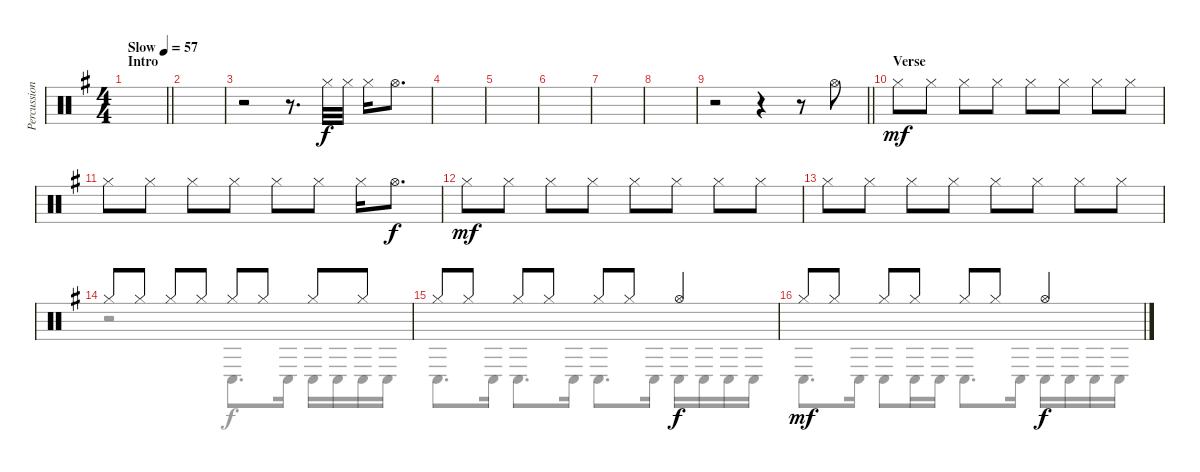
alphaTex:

\track ("Percussion 1" "Percussion") {instrument percussion}
\staff {score}
\articulation defaults
\voice
\ts (4 4)
\section ("" "Intro")
\tempo (57 "Slow")
\clef neutral
\barLineRight lightlight
\ks g
|
|
r.2 r.8{d} "Hi-Hat (closed)".32 "Hi-Hat (closed)".32 "Hi-Hat (closed)".16 "Hi-Hat (open)".8{d} |
|
|
|
|
|
\barLineRight lightlight
r.2 r.4 r.8 "Hi-Hat (open)".8{dy f} |
\section ("" "Verse")
"Hi-Hat (closed)".8{dy mf} "Hi-Hat (closed)".8 "Hi-Hat (closed)".8 "Hi-Hat (closed)".8 "Hi-Hat (closed)".8 "Hi-Hat (closed)".8 "Hi-Hat (closed)".8 "Hi-Hat (closed)".8 |
"Hi-Hat (closed)".8 "Hi-Hat (closed)".8 "Hi-Hat (closed)".8 "Hi-Hat (closed)".8 "Hi-Hat (closed)".8 "Hi-Hat (closed)".8 "Hi-Hat (closed)".16 "Hi-Hat (open)".8{d dy f} |
"Hi-Hat (closed)".8{dy mf} "Hi-Hat (closed)".8 "Hi-Hat (closed)".8 "Hi-Hat (closed)".8 "Hi-Hat (closed)".8 "Hi-Hat (closed)".8 "Hi-Hat (closed)".8 "Hi-Hat (closed)".8 |
"Hi-Hat (closed)".8 "Hi-Hat (closed)".8 "Hi-Hat (closed)".8 "Hi-Hat (closed)".8 "Hi-Hat (closed)".8 "Hi-Hat (closed)".8 "Hi-Hat (closed)".8 "Hi-Hat (closed)".8 |
"Hi-Hat (closed)".8 "Hi-Hat (closed)".8 "Hi-Hat (closed)".8 "Hi-Hat (closed)".8 "Hi-Hat (closed)".8 "Hi-Hat (closed)".8 "Hi-Hat (closed)".8 "Hi-Hat (closed)".8 |
"Hi-Hat (closed)".8 "Hi-Hat (closed)".8 "Hi-Hat (closed)".8 "Hi-Hat (closed)".8 "Hi-Hat (closed)".8 "Hi-Hat (closed)".8 "Hi-Hat (open)".4{dy f} |
"Hi-Hat (closed)".8{dy mf} "Hi-Hat (closed)".8 "Hi-Hat (closed)".8 "Hi-Hat (closed)".8 "Hi-Hat (closed)".8 "Hi-Hat (closed)".8 "Hi-Hat (open)".4{dy f}
\voice
\clef neutral
\ottava regular
\simile none
\barLineRight lightlight
\ks g
|
|
|
|
|
|
|
|
\barLineRight lightlight
|
|
|
|
|
r.2 "Conga low (hit)".8{d} "Conga low (hit)".16 "Conga low (hit)".16 "Conga low (hit)".16 "Conga low (hit)".16 "Conga low (hit)".16 |
"Conga low (hit)".8{d} "Conga low (hit)".16 "Conga low (hit)".8{d} "Conga low (hit)".16 "Conga low (hit)".8{d} "Conga low (hit)".16 "Conga low (hit)".16 "Conga low (hit)".16 "Conga low (hit)".16 "Conga low (hit)".16 |
"Conga low (hit)".8{d} "Conga low (hit)".16 "Conga low (hit)".8 "Conga low (hit)".16 "Conga low (hit)".16 "Conga low (hit)".8{d} "Conga low (hit)".16 "Conga low (hit)".16 "Conga low (hit)".16 "Conga low (hit)".16 "Conga low (hit)".16
